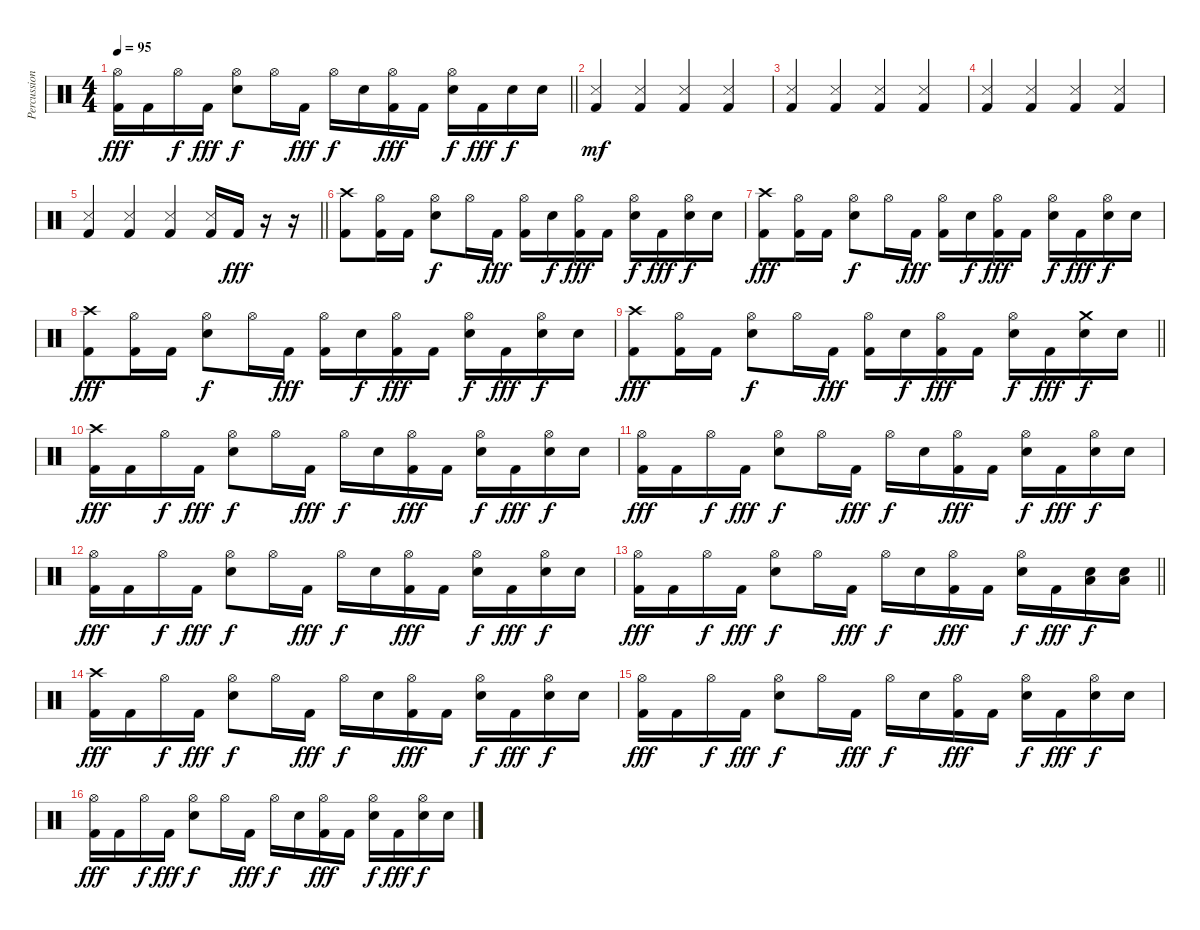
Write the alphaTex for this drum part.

\track ("Percussions" "Percussion") {instrument percussion}
\staff {score}
\articulation defaults
\ts (4 4)
\tempo 95
\clef neutral
\barLineRight lightlight
\ks c
("Kick (hit) 2" "Hi-Hat (open)").16{dy fff} "Kick (hit) 2".16 "Hi-Hat (open)".16{dy f} "Kick (hit) 2".16{dy fff} ("Electric Snare (hit)" "Hi-Hat (open)").8{dy f} "Hi-Hat (open)".16 "Kick (hit) 2".16{dy fff} "Hi-Hat (open)".16{dy f} "Electric Snare (hit)".16 ("Kick (hit) 2" "Hi-Hat (open)").16{dy fff} "Kick (hit) 2".16 ("Electric Snare (hit)" "Hi-Hat (open)").16{dy f} "Kick (hit) 2".16{dy fff} "Electric Snare (hit)".16{dy f} "Electric Snare (hit)".16 |
("Kick (hit) 2" "Snare (side stick) 3").4{dy mf} ("Kick (hit) 2" "Snare (side stick) 3").4 ("Kick (hit) 2" "Snare (side stick) 3").4 ("Kick (hit) 2" "Snare (side stick) 3").4 |
("Kick (hit) 2" "Snare (side stick) 3").4 ("Kick (hit) 2" "Snare (side stick) 3").4 ("Kick (hit) 2" "Snare (side stick) 3").4 ("Kick (hit) 2" "Snare (side stick) 3").4 |
("Kick (hit) 2" "Snare (side stick) 3").4 ("Kick (hit) 2" "Snare (side stick) 3").4 ("Kick (hit) 2" "Snare (side stick) 3").4 ("Kick (hit) 2" "Snare (side stick) 3").4 |
\barLineRight lightlight
("Kick (hit) 2" "Snare (side stick) 3").4 ("Kick (hit) 2" "Snare (side stick) 3").4 ("Kick (hit) 2" "Snare (side stick) 3").4 ("Kick (hit) 2" "Snare (side stick) 3").16 "Kick (hit) 2".16{dy fff} r.16 r.16 |
("Kick (hit) 2" "Crash high (hit)").8 ("Kick (hit) 2" "Hi-Hat (open)").16 "Kick (hit) 2".16 ("Electric Snare (hit)" "Hi-Hat (open)").8{dy f} "Hi-Hat (open)".16 "Kick (hit) 2".16{dy fff} ("Kick (hit) 2" "Hi-Hat (open)").16 "Electric Snare (hit)".16{dy f} ("Kick (hit) 2" "Hi-Hat (open)").16{dy fff} "Kick (hit) 2".16 ("Electric Snare (hit)" "Hi-Hat (open)").16{dy f} "Kick (hit) 2".16{dy fff} ("Electric Snare (hit)" "Hi-Hat (open)").16{dy f} "Electric Snare (hit)".16 |
("Kick (hit) 2" "Crash high (hit)").8{dy fff} ("Kick (hit) 2" "Hi-Hat (open)").16 "Kick (hit) 2".16 ("Electric Snare (hit)" "Hi-Hat (open)").8{dy f} "Hi-Hat (open)".16 "Kick (hit) 2".16{dy fff} ("Kick (hit) 2" "Hi-Hat (open)").16 "Electric Snare (hit)".16{dy f} ("Kick (hit) 2" "Hi-Hat (open)").16{dy fff} "Kick (hit) 2".16 ("Electric Snare (hit)" "Hi-Hat (open)").16{dy f} "Kick (hit) 2".16{dy fff} ("Electric Snare (hit)" "Hi-Hat (open)").16{dy f} "Electric Snare (hit)".16 |
("Kick (hit) 2" "Crash high (hit)").8{dy fff} ("Kick (hit) 2" "Hi-Hat (open)").16 "Kick (hit) 2".16 ("Electric Snare (hit)" "Hi-Hat (open)").8{dy f} "Hi-Hat (open)".16 "Kick (hit) 2".16{dy fff} ("Kick (hit) 2" "Hi-Hat (open)").16 "Electric Snare (hit)".16{dy f} ("Kick (hit) 2" "Hi-Hat (open)").16{dy fff} "Kick (hit) 2".16 ("Electric Snare (hit)" "Hi-Hat (open)").16{dy f} "Kick (hit) 2".16{dy fff} ("Electric Snare (hit)" "Hi-Hat (open)").16{dy f} "Electric Snare (hit)".16 |
\barLineRight lightlight
("Kick (hit) 2" "Crash high (hit)").8{dy fff} ("Kick (hit) 2" "Hi-Hat (open)").16 "Kick (hit) 2".16 ("Electric Snare (hit)" "Hi-Hat (open)").8{dy f} "Hi-Hat (open)".16 "Kick (hit) 2".16{dy fff} ("Kick (hit) 2" "Hi-Hat (open)").16 "Electric Snare (hit)".16{dy f} ("Kick (hit) 2" "Hi-Hat (open)").16{dy fff} "Kick (hit) 2".16 ("Electric Snare (hit)" "Hi-Hat (open)").16{dy f} "Kick (hit) 2".16{dy fff} ("Electric Snare (hit)" "Crash medium (hit)").16{dy f} "Electric Snare (hit)".16 |
("Kick (hit) 2" "Crash high (hit)").16{dy fff} "Kick (hit) 2".16 "Hi-Hat (open)".16{dy f} "Kick (hit) 2".16{dy fff} ("Electric Snare (hit)" "Hi-Hat (open)").8{dy f} "Hi-Hat (open)".16 "Kick (hit) 2".16{dy fff} "Hi-Hat (open)".16{dy f} "Electric Snare (hit)".16 ("Kick (hit) 2" "Hi-Hat (open)").16{dy fff} "Kick (hit) 2".16 ("Electric Snare (hit)" "Hi-Hat (open)").16{dy f} "Kick (hit) 2".16{dy fff} ("Hi-Hat (open)" "Electric Snare (hit)").16{dy f} "Electric Snare (hit)".16 |
("Kick (hit) 2" "Hi-Hat (open)").16{dy fff} "Kick (hit) 2".16 "Hi-Hat (open)".16{dy f} "Kick (hit) 2".16{dy fff} ("Electric Snare (hit)" "Hi-Hat (open)").8{dy f} "Hi-Hat (open)".16 "Kick (hit) 2".16{dy fff} "Hi-Hat (open)".16{dy f} "Electric Snare (hit)".16 ("Kick (hit) 2" "Hi-Hat (open)").16{dy fff} "Kick (hit) 2".16 ("Electric Snare (hit)" "Hi-Hat (open)").16{dy f} "Kick (hit) 2".16{dy fff} ("Hi-Hat (open)" "Electric Snare (hit)").16{dy f} "Electric Snare (hit)".16 |
("Kick (hit) 2" "Hi-Hat (open)").16{dy fff} "Kick (hit) 2".16 "Hi-Hat (open)".16{dy f} "Kick (hit) 2".16{dy fff} ("Electric Snare (hit)" "Hi-Hat (open)").8{dy f} "Hi-Hat (open)".16 "Kick (hit) 2".16{dy fff} "Hi-Hat (open)".16{dy f} "Electric Snare (hit)".16 ("Kick (hit) 2" "Hi-Hat (open)").16{dy fff} "Kick (hit) 2".16 ("Electric Snare (hit)" "Hi-Hat (open)").16{dy f} "Kick (hit) 2".16{dy fff} ("Hi-Hat (open)" "Electric Snare (hit)").16{dy f} "Electric Snare (hit)".16 |
\barLineRight lightlight
("Kick (hit) 2" "Hi-Hat (open)").16{dy fff} "Kick (hit) 2".16 "Hi-Hat (open)".16{dy f} "Kick (hit) 2".16{dy fff} ("Electric Snare (hit)" "Hi-Hat (open)").8{dy f} "Hi-Hat (open)".16 "Kick (hit) 2".16{dy fff} "Hi-Hat (open)".16{dy f} "Electric Snare (hit)".16 ("Kick (hit) 2" "Hi-Hat (open)").16{dy fff} "Kick (hit) 2".16 ("Electric Snare (hit)" "Hi-Hat (open)").16{dy f} "Kick (hit) 2".16{dy fff} ("Low Tom (hit)" "Electric Snare (hit)").16{dy f} ("Low Tom (hit)" "Electric Snare (hit)").16 |
("Kick (hit) 2" "Crash high (hit)").16{dy fff} "Kick (hit) 2".16 "Hi-Hat (open)".16{dy f} "Kick (hit) 2".16{dy fff} ("Electric Snare (hit)" "Hi-Hat (open)").8{dy f} "Hi-Hat (open)".16 "Kick (hit) 2".16{dy fff} "Hi-Hat (open)".16{dy f} "Electric Snare (hit)".16 ("Kick (hit) 2" "Hi-Hat (open)").16{dy fff} "Kick (hit) 2".16 ("Electric Snare (hit)" "Hi-Hat (open)").16{dy f} "Kick (hit) 2".16{dy fff} ("Hi-Hat (open)" "Electric Snare (hit)").16{dy f} "Electric Snare (hit)".16 |
("Kick (hit) 2" "Hi-Hat (open)").16{dy fff} "Kick (hit) 2".16 "Hi-Hat (open)".16{dy f} "Kick (hit) 2".16{dy fff} ("Electric Snare (hit)" "Hi-Hat (open)").8{dy f} "Hi-Hat (open)".16 "Kick (hit) 2".16{dy fff} "Hi-Hat (open)".16{dy f} "Electric Snare (hit)".16 ("Kick (hit) 2" "Hi-Hat (open)").16{dy fff} "Kick (hit) 2".16 ("Electric Snare (hit)" "Hi-Hat (open)").16{dy f} "Kick (hit) 2".16{dy fff} ("Hi-Hat (open)" "Electric Snare (hit)").16{dy f} "Electric Snare (hit)".16 |
("Kick (hit) 2" "Hi-Hat (open)").16{dy fff} "Kick (hit) 2".16 "Hi-Hat (open)".16{dy f} "Kick (hit) 2".16{dy fff} ("Electric Snare (hit)" "Hi-Hat (open)").8{dy f} "Hi-Hat (open)".16 "Kick (hit) 2".16{dy fff} "Hi-Hat (open)".16{dy f} "Electric Snare (hit)".16 ("Kick (hit) 2" "Hi-Hat (open)").16{dy fff} "Kick (hit) 2".16 ("Electric Snare (hit)" "Hi-Hat (open)").16{dy f} "Kick (hit) 2".16{dy fff} ("Hi-Hat (open)" "Electric Snare (hit)").16{dy f} "Electric Snare (hit)".16
